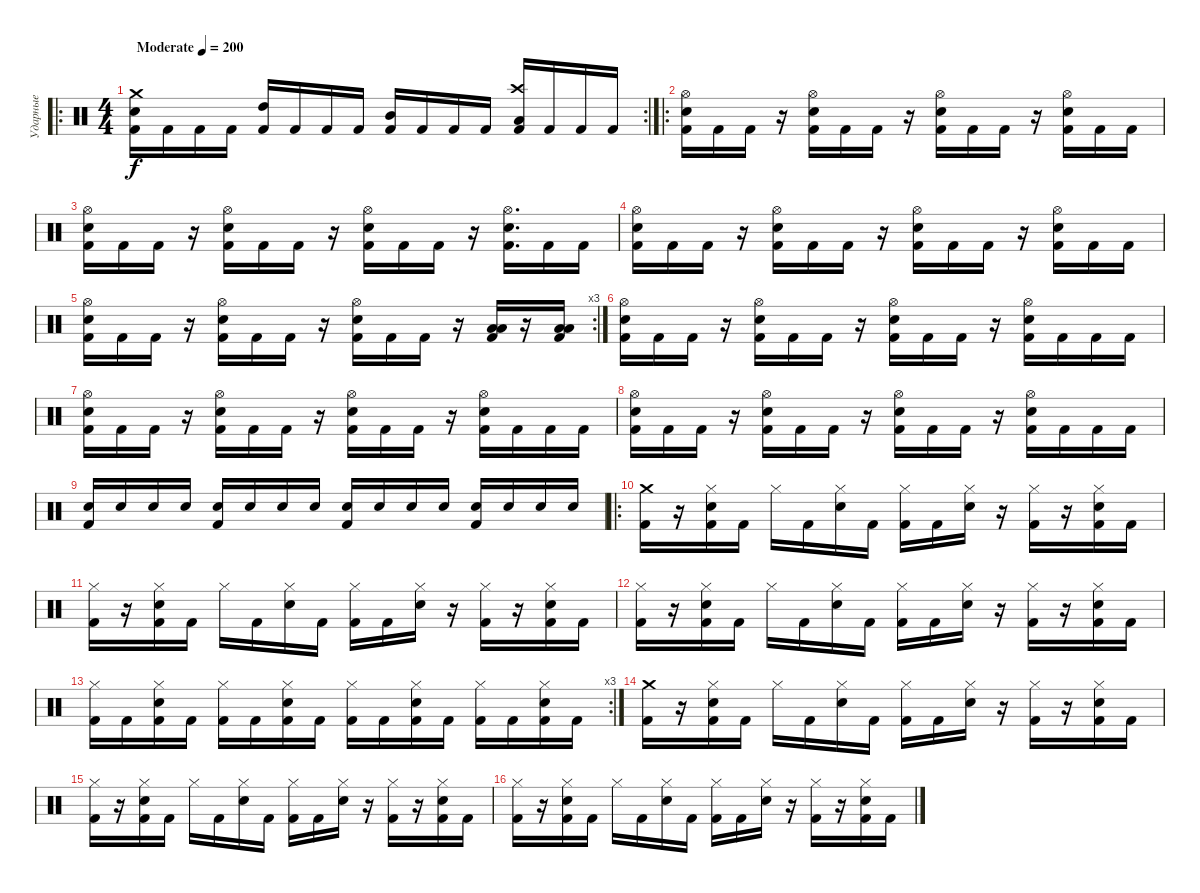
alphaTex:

\track ("Ударные" "Ударные") {instrument percussion}
\staff {score}
\articulation defaults
\ro
\rc 2
\ts (4 4)
\tempo (200 "Moderate")
\clef neutral
\ks c
("Crash medium (hit)" "Snare (hit) 2" "Kick (hit) 2").16{dy f} "Kick (hit) 2".16 "Kick (hit) 2".16 "Kick (hit) 2".16 ("High Tom (hit)" "Kick (hit) 2").16 "Kick (hit) 2".16 "Kick (hit) 2".16 "Kick (hit) 2".16 ("Mid Tom (hit)" "Kick (hit) 2").16 "Kick (hit) 2".16 "Kick (hit) 2".16 "Kick (hit) 2".16 ("Crash high (hit)" "Low Floor Tom (hit)" "Kick (hit) 2").16 "Kick (hit) 2".16 "Kick (hit) 2".16 "Kick (hit) 2".16 |
\ro
("Hi-Hat (open)" "Snare (hit) 2" "Kick (hit) 2").16 "Kick (hit) 2".16 "Kick (hit) 2".16 r.16 ("Hi-Hat (open)" "Snare (hit) 2" "Kick (hit) 2").16 "Kick (hit) 2".16 "Kick (hit) 2".16 r.16 ("Hi-Hat (open)" "Snare (hit) 2" "Kick (hit) 2").16 "Kick (hit) 2".16 "Kick (hit) 2".16 r.16 ("Hi-Hat (open)" "Snare (hit) 2" "Kick (hit) 2").16 "Kick (hit) 2".16 "Kick (hit) 2".16 |
("Hi-Hat (open)" "Snare (hit) 2" "Kick (hit) 2").16 "Kick (hit) 2".16 "Kick (hit) 2".16 r.16 ("Hi-Hat (open)" "Snare (hit) 2" "Kick (hit) 2").16 "Kick (hit) 2".16 "Kick (hit) 2".16 r.16 ("Hi-Hat (open)" "Snare (hit) 2" "Kick (hit) 2").16 "Kick (hit) 2".16 "Kick (hit) 2".16 r.16 ("Hi-Hat (open)" "Snare (hit) 2" "Kick (hit) 2").16{d} "Kick (hit) 2".16 "Kick (hit) 2".16 |
("Hi-Hat (open)" "Snare (hit) 2" "Kick (hit) 2").16 "Kick (hit) 2".16 "Kick (hit) 2".16 r.16 ("Hi-Hat (open)" "Snare (hit) 2" "Kick (hit) 2").16 "Kick (hit) 2".16 "Kick (hit) 2".16 r.16 ("Hi-Hat (open)" "Snare (hit) 2" "Kick (hit) 2").16 "Kick (hit) 2".16 "Kick (hit) 2".16 r.16 ("Hi-Hat (open)" "Snare (hit) 2" "Kick (hit) 2").16 "Kick (hit) 2".16 "Kick (hit) 2".16 |
\rc 3
("Hi-Hat (open)" "Snare (hit) 2" "Kick (hit) 2").16 "Kick (hit) 2".16 "Kick (hit) 2".16 r.16 ("Hi-Hat (open)" "Snare (hit) 2" "Kick (hit) 2").16 "Kick (hit) 2".16 "Kick (hit) 2".16 r.16 ("Hi-Hat (open)" "Snare (hit) 2" "Kick (hit) 2").16 "Kick (hit) 2".16 "Kick (hit) 2".16 r.16 ("Low Tom (hit)" "Low Floor Tom (hit)" "Kick (hit) 2").16 r.16 ("Low Tom (hit)" "Low Floor Tom (hit)" "Kick (hit) 2").16 |
("Hi-Hat (open)" "Snare (hit) 2" "Kick (hit) 2").16 "Kick (hit) 2".16 "Kick (hit) 2".16 r.16 ("Hi-Hat (open)" "Snare (hit) 2" "Kick (hit) 2").16 "Kick (hit) 2".16 "Kick (hit) 2".16 r.16 ("Hi-Hat (open)" "Snare (hit) 2" "Kick (hit) 2").16 "Kick (hit) 2".16 "Kick (hit) 2".16 r.16 ("Hi-Hat (open)" "Snare (hit) 2" "Kick (hit) 2").16 "Kick (hit) 2".16 "Kick (hit) 2".16 "Kick (hit) 2".16 |
("Hi-Hat (open)" "Snare (hit) 2" "Kick (hit) 2").16 "Kick (hit) 2".16 "Kick (hit) 2".16 r.16 ("Hi-Hat (open)" "Snare (hit) 2" "Kick (hit) 2").16 "Kick (hit) 2".16 "Kick (hit) 2".16 r.16 ("Hi-Hat (open)" "Snare (hit) 2" "Kick (hit) 2").16 "Kick (hit) 2".16 "Kick (hit) 2".16 r.16 ("Hi-Hat (open)" "Snare (hit) 2" "Kick (hit) 2").16 "Kick (hit) 2".16 "Kick (hit) 2".16 "Kick (hit) 2".16 |
("Hi-Hat (open)" "Snare (hit) 2" "Kick (hit) 2").16 "Kick (hit) 2".16 "Kick (hit) 2".16 r.16 ("Hi-Hat (open)" "Snare (hit) 2" "Kick (hit) 2").16 "Kick (hit) 2".16 "Kick (hit) 2".16 r.16 ("Hi-Hat (open)" "Snare (hit) 2" "Kick (hit) 2").16 "Kick (hit) 2".16 "Kick (hit) 2".16 r.16 ("Hi-Hat (open)" "Snare (hit) 2" "Kick (hit) 2").16 "Kick (hit) 2".16 "Kick (hit) 2".16 "Kick (hit) 2".16 |
("Snare (hit) 2" "Kick (hit) 2").16 "Snare (hit) 2".16 "Snare (hit) 2".16 "Snare (hit) 2".16 ("Snare (hit) 2" "Kick (hit) 2").16 "Snare (hit) 2".16 "Snare (hit) 2".16 "Snare (hit) 2".16 ("Snare (hit) 2" "Kick (hit) 2").16 "Snare (hit) 2".16 "Snare (hit) 2".16 "Snare (hit) 2".16 ("Snare (hit) 2" "Kick (hit) 2").16 "Snare (hit) 2".16 "Snare (hit) 2".16 "Snare (hit) 2".16 |
\ro
("Crash medium (hit)" "Kick (hit) 2").16 r.16 ("Hi-Hat (closed)" "Snare (hit) 2" "Kick (hit) 2").16 "Kick (hit) 2".16 "Hi-Hat (closed)".16 "Kick (hit) 2".16 ("Hi-Hat (closed)" "Snare (hit) 2").16 "Kick (hit) 2".16 ("Hi-Hat (closed)" "Kick (hit) 2").16 "Kick (hit) 2".16 ("Hi-Hat (closed)" "Snare (hit) 2").16 r.16 ("Hi-Hat (closed)" "Kick (hit) 2").16 r.16 ("Hi-Hat (closed)" "Snare (hit) 2" "Kick (hit) 2").16 "Kick (hit) 2".16 |
("Hi-Hat (closed)" "Kick (hit) 2").16 r.16 ("Hi-Hat (closed)" "Snare (hit) 2" "Kick (hit) 2").16 "Kick (hit) 2".16 "Hi-Hat (closed)".16 "Kick (hit) 2".16 ("Hi-Hat (closed)" "Snare (hit) 2").16 "Kick (hit) 2".16 ("Hi-Hat (closed)" "Kick (hit) 2").16 "Kick (hit) 2".16 ("Hi-Hat (closed)" "Snare (hit) 2").16 r.16 ("Hi-Hat (closed)" "Kick (hit) 2").16 r.16 ("Hi-Hat (closed)" "Snare (hit) 2" "Kick (hit) 2").16 "Kick (hit) 2".16 |
("Hi-Hat (closed)" "Kick (hit) 2").16 r.16 ("Hi-Hat (closed)" "Snare (hit) 2" "Kick (hit) 2").16 "Kick (hit) 2".16 "Hi-Hat (closed)".16 "Kick (hit) 2".16 ("Hi-Hat (closed)" "Snare (hit) 2").16 "Kick (hit) 2".16 ("Hi-Hat (closed)" "Kick (hit) 2").16 "Kick (hit) 2".16 ("Hi-Hat (closed)" "Snare (hit) 2").16 r.16 ("Hi-Hat (closed)" "Kick (hit) 2").16 r.16 ("Hi-Hat (closed)" "Snare (hit) 2" "Kick (hit) 2").16 "Kick (hit) 2".16 |
\rc 3
("Hi-Hat (closed)" "Kick (hit) 2").16 "Kick (hit) 2".16 ("Hi-Hat (closed)" "Snare (hit) 2" "Kick (hit) 2").16 "Kick (hit) 2".16 ("Hi-Hat (closed)" "Kick (hit) 2").16 "Kick (hit) 2".16 ("Hi-Hat (closed)" "Snare (hit) 2" "Kick (hit) 2").16 "Kick (hit) 2".16 ("Hi-Hat (closed)" "Kick (hit) 2").16 "Kick (hit) 2".16 ("Hi-Hat (closed)" "Snare (hit) 2" "Kick (hit) 2").16 "Kick (hit) 2".16 ("Hi-Hat (closed)" "Kick (hit) 2").16 "Kick (hit) 2".16 ("Hi-Hat (closed)" "Snare (hit) 2" "Kick (hit) 2").16 "Kick (hit) 2".16 |
("Crash medium (hit)" "Kick (hit) 2").16 r.16 ("Hi-Hat (closed)" "Snare (hit) 2" "Kick (hit) 2").16 "Kick (hit) 2".16 "Hi-Hat (closed)".16 "Kick (hit) 2".16 ("Hi-Hat (closed)" "Snare (hit) 2").16 "Kick (hit) 2".16 ("Hi-Hat (closed)" "Kick (hit) 2").16 "Kick (hit) 2".16 ("Hi-Hat (closed)" "Snare (hit) 2").16 r.16 ("Hi-Hat (closed)" "Kick (hit) 2").16 r.16 ("Hi-Hat (closed)" "Snare (hit) 2" "Kick (hit) 2").16 "Kick (hit) 2".16 |
("Hi-Hat (closed)" "Kick (hit) 2").16 r.16 ("Hi-Hat (closed)" "Snare (hit) 2" "Kick (hit) 2").16 "Kick (hit) 2".16 "Hi-Hat (closed)".16 "Kick (hit) 2".16 ("Hi-Hat (closed)" "Snare (hit) 2").16 "Kick (hit) 2".16 ("Hi-Hat (closed)" "Kick (hit) 2").16 "Kick (hit) 2".16 ("Hi-Hat (closed)" "Snare (hit) 2").16 r.16 ("Hi-Hat (closed)" "Kick (hit) 2").16 r.16 ("Hi-Hat (closed)" "Snare (hit) 2" "Kick (hit) 2").16 "Kick (hit) 2".16 |
("Hi-Hat (closed)" "Kick (hit) 2").16 r.16 ("Hi-Hat (closed)" "Snare (hit) 2" "Kick (hit) 2").16 "Kick (hit) 2".16 "Hi-Hat (closed)".16 "Kick (hit) 2".16 ("Hi-Hat (closed)" "Snare (hit) 2").16 "Kick (hit) 2".16 ("Hi-Hat (closed)" "Kick (hit) 2").16 "Kick (hit) 2".16 ("Hi-Hat (closed)" "Snare (hit) 2").16 r.16 ("Hi-Hat (closed)" "Kick (hit) 2").16 r.16 ("Hi-Hat (closed)" "Snare (hit) 2" "Kick (hit) 2").16 "Kick (hit) 2".16
